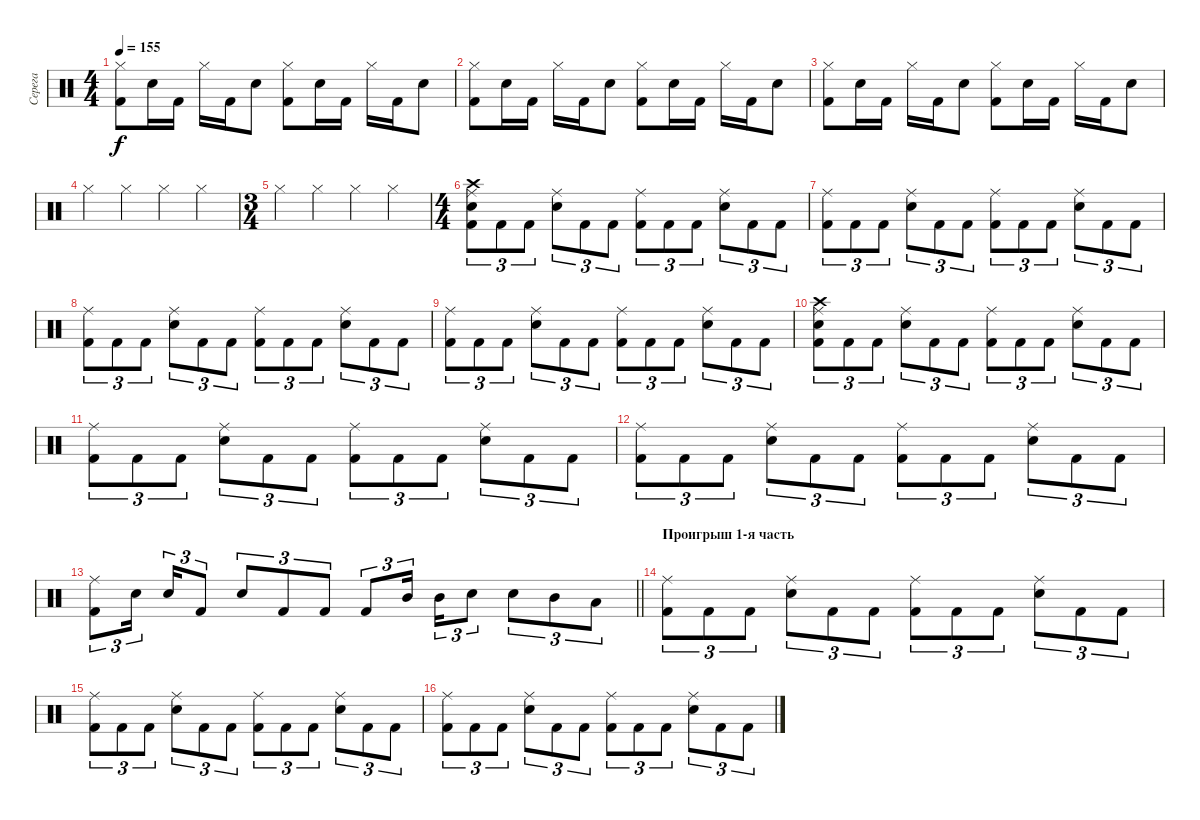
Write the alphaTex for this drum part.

\track ("Серега" "Серега") {instrument percussion}
\staff {score}
\articulation defaults
\ts (4 4)
\tempo 155
\clef neutral
\ks c
("Hi-Hat (closed)" "Kick (hit) 2").8{dy f} "Snare (hit) 2".16 "Kick (hit) 2".16 "Hi-Hat (closed)".16 "Kick (hit) 2".16 "Snare (hit) 2".8 ("Hi-Hat (closed)" "Kick (hit) 2").8 "Snare (hit) 2".16 "Kick (hit) 2".16 "Hi-Hat (closed)".16 "Kick (hit) 2".16 "Snare (hit) 2".8 |
("Hi-Hat (closed)" "Kick (hit) 2").8 "Snare (hit) 2".16 "Kick (hit) 2".16 "Hi-Hat (closed)".16 "Kick (hit) 2".16 "Snare (hit) 2".8 ("Hi-Hat (closed)" "Kick (hit) 2").8 "Snare (hit) 2".16 "Kick (hit) 2".16 "Hi-Hat (closed)".16 "Kick (hit) 2".16 "Snare (hit) 2".8 |
("Hi-Hat (closed)" "Kick (hit) 2").8 "Snare (hit) 2".16 "Kick (hit) 2".16 "Hi-Hat (closed)".16 "Kick (hit) 2".16 "Snare (hit) 2".8 ("Hi-Hat (closed)" "Kick (hit) 2").8 "Snare (hit) 2".16 "Kick (hit) 2".16 "Hi-Hat (closed)".16 "Kick (hit) 2".16 "Snare (hit) 2".8 |
"Hi-Hat (closed)".4 "Hi-Hat (closed)".4 "Hi-Hat (closed)".4 "Hi-Hat (closed)".4 |
\ts (3 4)
"Hi-Hat (closed)".4 "Hi-Hat (closed)".4 "Hi-Hat (closed)".4 "Hi-Hat (closed)".4 |
\ts (4 4)
("Ride (middle)" "Kick (hit) 2" "Crash high (hit)" "Snare (hit) 2").8{tu (3 2)} "Kick (hit) 2".8{tu (3 2)} "Kick (hit) 2".8{tu (3 2)} ("Ride (middle)" "Snare (hit) 2").8{tu (3 2)} "Kick (hit) 2".8{tu (3 2)} "Kick (hit) 2".8{tu (3 2)} ("Ride (middle)" "Kick (hit) 2").8{tu (3 2)} "Kick (hit) 2".8{tu (3 2)} "Kick (hit) 2".8{tu (3 2)} ("Ride (middle)" "Snare (hit) 2").8{tu (3 2)} "Kick (hit) 2".8{tu (3 2)} "Kick (hit) 2".8{tu (3 2)} |
("Ride (middle)" "Kick (hit) 2").8{tu (3 2)} "Kick (hit) 2".8{tu (3 2)} "Kick (hit) 2".8{tu (3 2)} ("Ride (middle)" "Snare (hit) 2").8{tu (3 2)} "Kick (hit) 2".8{tu (3 2)} "Kick (hit) 2".8{tu (3 2)} ("Ride (middle)" "Kick (hit) 2").8{tu (3 2)} "Kick (hit) 2".8{tu (3 2)} "Kick (hit) 2".8{tu (3 2)} ("Ride (middle)" "Snare (hit) 2").8{tu (3 2)} "Kick (hit) 2".8{tu (3 2)} "Kick (hit) 2".8{tu (3 2)} |
("Ride (middle)" "Kick (hit) 2").8{tu (3 2)} "Kick (hit) 2".8{tu (3 2)} "Kick (hit) 2".8{tu (3 2)} ("Ride (middle)" "Snare (hit) 2").8{tu (3 2)} "Kick (hit) 2".8{tu (3 2)} "Kick (hit) 2".8{tu (3 2)} ("Ride (middle)" "Kick (hit) 2").8{tu (3 2)} "Kick (hit) 2".8{tu (3 2)} "Kick (hit) 2".8{tu (3 2)} ("Ride (middle)" "Snare (hit) 2").8{tu (3 2)} "Kick (hit) 2".8{tu (3 2)} "Kick (hit) 2".8{tu (3 2)} |
("Ride (middle)" "Kick (hit) 2").8{tu (3 2)} "Kick (hit) 2".8{tu (3 2)} "Kick (hit) 2".8{tu (3 2)} ("Ride (middle)" "Snare (hit) 2").8{tu (3 2)} "Kick (hit) 2".8{tu (3 2)} "Kick (hit) 2".8{tu (3 2)} ("Ride (middle)" "Kick (hit) 2").8{tu (3 2)} "Kick (hit) 2".8{tu (3 2)} "Kick (hit) 2".8{tu (3 2)} ("Ride (middle)" "Snare (hit) 2").8{tu (3 2)} "Kick (hit) 2".8{tu (3 2)} "Kick (hit) 2".8{tu (3 2)} |
("Ride (middle)" "Kick (hit) 2" "Crash high (hit)" "Snare (hit) 2").8{tu (3 2)} "Kick (hit) 2".8{tu (3 2)} "Kick (hit) 2".8{tu (3 2)} ("Ride (middle)" "Snare (hit) 2").8{tu (3 2)} "Kick (hit) 2".8{tu (3 2)} "Kick (hit) 2".8{tu (3 2)} ("Ride (middle)" "Kick (hit) 2").8{tu (3 2)} "Kick (hit) 2".8{tu (3 2)} "Kick (hit) 2".8{tu (3 2)} ("Ride (middle)" "Snare (hit) 2").8{tu (3 2)} "Kick (hit) 2".8{tu (3 2)} "Kick (hit) 2".8{tu (3 2)} |
("Ride (middle)" "Kick (hit) 2").8{tu (3 2)} "Kick (hit) 2".8{tu (3 2)} "Kick (hit) 2".8{tu (3 2)} ("Ride (middle)" "Snare (hit) 2").8{tu (3 2)} "Kick (hit) 2".8{tu (3 2)} "Kick (hit) 2".8{tu (3 2)} ("Ride (middle)" "Kick (hit) 2").8{tu (3 2)} "Kick (hit) 2".8{tu (3 2)} "Kick (hit) 2".8{tu (3 2)} ("Ride (middle)" "Snare (hit) 2").8{tu (3 2)} "Kick (hit) 2".8{tu (3 2)} "Kick (hit) 2".8{tu (3 2)} |
("Ride (middle)" "Kick (hit) 2").8{tu (3 2)} "Kick (hit) 2".8{tu (3 2)} "Kick (hit) 2".8{tu (3 2)} ("Ride (middle)" "Snare (hit) 2").8{tu (3 2)} "Kick (hit) 2".8{tu (3 2)} "Kick (hit) 2".8{tu (3 2)} ("Ride (middle)" "Kick (hit) 2").8{tu (3 2)} "Kick (hit) 2".8{tu (3 2)} "Kick (hit) 2".8{tu (3 2)} ("Ride (middle)" "Snare (hit) 2").8{tu (3 2)} "Kick (hit) 2".8{tu (3 2)} "Kick (hit) 2".8{tu (3 2)} |
\barLineRight lightlight
("Ride (middle)" "Kick (hit) 2").8{tu (3 2)} "Snare (hit) 2".16{tu (3 2)} "Snare (hit) 2".16{tu (3 2)} "Kick (hit) 2".8{tu (3 2)} "Snare (hit) 2".8{tu (3 2)} "Kick (hit) 2".8{tu (3 2)} "Kick (hit) 2".8{tu (3 2)} "Kick (hit) 2".8{tu (3 2)} "Mid Tom (hit)".16{tu (3 2)} "Mid Tom (hit)".16{tu (3 2)} "Snare (hit) 2".8{tu (3 2)} "Snare (hit) 2".8{tu (3 2)} "Mid Tom (hit)".8{tu (3 2)} "Low Tom (hit)".8{tu (3 2)} |
\section ("" "Проигрыш 1-я часть")
("Ride (middle)" "Kick (hit) 2").8{tu (3 2)} "Kick (hit) 2".8{tu (3 2)} "Kick (hit) 2".8{tu (3 2)} ("Ride (middle)" "Snare (hit) 2").8{tu (3 2)} "Kick (hit) 2".8{tu (3 2)} "Kick (hit) 2".8{tu (3 2)} ("Ride (middle)" "Kick (hit) 2").8{tu (3 2)} "Kick (hit) 2".8{tu (3 2)} "Kick (hit) 2".8{tu (3 2)} ("Ride (middle)" "Snare (hit) 2").8{tu (3 2)} "Kick (hit) 2".8{tu (3 2)} "Kick (hit) 2".8{tu (3 2)} |
("Ride (middle)" "Kick (hit) 2").8{tu (3 2)} "Kick (hit) 2".8{tu (3 2)} "Kick (hit) 2".8{tu (3 2)} ("Ride (middle)" "Snare (hit) 2").8{tu (3 2)} "Kick (hit) 2".8{tu (3 2)} "Kick (hit) 2".8{tu (3 2)} ("Ride (middle)" "Kick (hit) 2").8{tu (3 2)} "Kick (hit) 2".8{tu (3 2)} "Kick (hit) 2".8{tu (3 2)} ("Ride (middle)" "Snare (hit) 2").8{tu (3 2)} "Kick (hit) 2".8{tu (3 2)} "Kick (hit) 2".8{tu (3 2)} |
("Ride (middle)" "Kick (hit) 2").8{tu (3 2)} "Kick (hit) 2".8{tu (3 2)} "Kick (hit) 2".8{tu (3 2)} ("Ride (middle)" "Snare (hit) 2").8{tu (3 2)} "Kick (hit) 2".8{tu (3 2)} "Kick (hit) 2".8{tu (3 2)} ("Ride (middle)" "Kick (hit) 2").8{tu (3 2)} "Kick (hit) 2".8{tu (3 2)} "Kick (hit) 2".8{tu (3 2)} ("Ride (middle)" "Snare (hit) 2").8{tu (3 2)} "Kick (hit) 2".8{tu (3 2)} "Kick (hit) 2".8{tu (3 2)}
